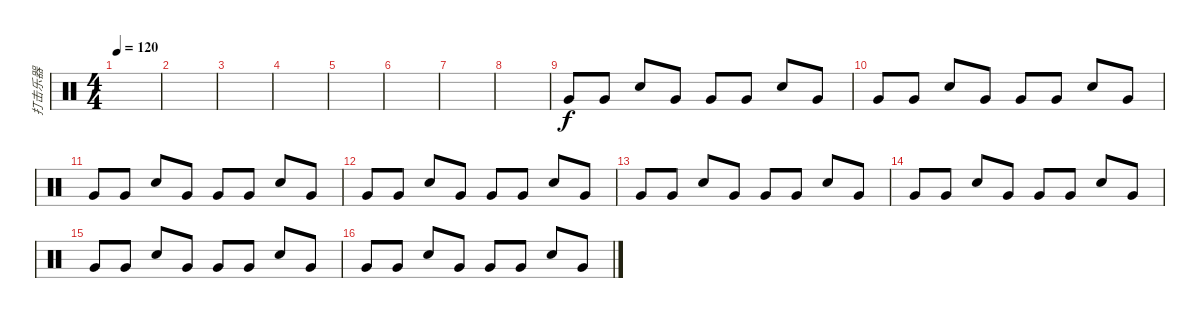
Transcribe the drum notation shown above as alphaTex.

\track ("打击乐器" "打击乐器") {instrument percussion}
\staff {score}
\articulation defaults
\ts (4 4)
\tempo 120
\clef neutral
\ks c
|
|
|
|
|
|
|
|
"Very Low Tom (hit)".8 "Very Low Tom (hit)".8 "Snare (hit) 2".8 "Very Low Tom (hit)".8 "Very Low Tom (hit)".8 "Very Low Tom (hit)".8 "Snare (hit) 2".8 "Very Low Tom (hit)".8 |
"Very Low Tom (hit)".8 "Very Low Tom (hit)".8 "Snare (hit) 2".8 "Very Low Tom (hit)".8 "Very Low Tom (hit)".8 "Very Low Tom (hit)".8 "Snare (hit) 2".8 "Very Low Tom (hit)".8 |
"Very Low Tom (hit)".8 "Very Low Tom (hit)".8 "Snare (hit) 2".8 "Very Low Tom (hit)".8 "Very Low Tom (hit)".8 "Very Low Tom (hit)".8 "Snare (hit) 2".8 "Very Low Tom (hit)".8 |
"Very Low Tom (hit)".8 "Very Low Tom (hit)".8 "Snare (hit) 2".8 "Very Low Tom (hit)".8 "Very Low Tom (hit)".8 "Very Low Tom (hit)".8 "Snare (hit) 2".8 "Very Low Tom (hit)".8 |
"Very Low Tom (hit)".8 "Very Low Tom (hit)".8 "Snare (hit) 2".8 "Very Low Tom (hit)".8 "Very Low Tom (hit)".8 "Very Low Tom (hit)".8 "Snare (hit) 2".8 "Very Low Tom (hit)".8 |
"Very Low Tom (hit)".8 "Very Low Tom (hit)".8 "Snare (hit) 2".8 "Very Low Tom (hit)".8 "Very Low Tom (hit)".8 "Very Low Tom (hit)".8 "Snare (hit) 2".8 "Very Low Tom (hit)".8 |
"Very Low Tom (hit)".8 "Very Low Tom (hit)".8 "Snare (hit) 2".8 "Very Low Tom (hit)".8 "Very Low Tom (hit)".8 "Very Low Tom (hit)".8 "Snare (hit) 2".8 "Very Low Tom (hit)".8 |
"Very Low Tom (hit)".8 "Very Low Tom (hit)".8 "Snare (hit) 2".8 "Very Low Tom (hit)".8 "Very Low Tom (hit)".8 "Very Low Tom (hit)".8 "Snare (hit) 2".8 "Very Low Tom (hit)".8
